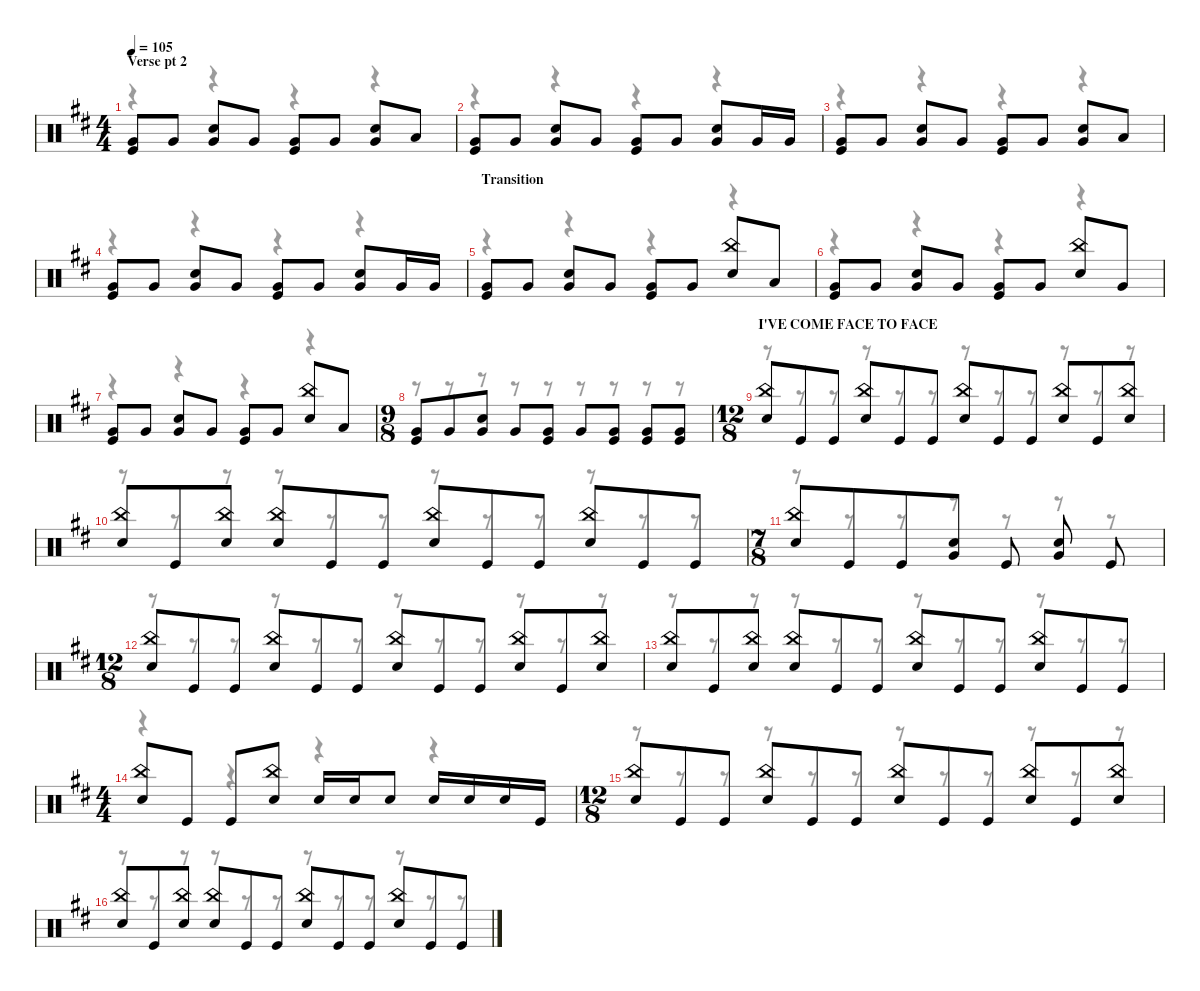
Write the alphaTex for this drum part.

\defaultSystemsLayout 4
\hideDynamics
\bracketExtendMode nobrackets
\singleTrackTrackNamePolicy hidden
\multiTrackTrackNamePolicy hidden
\firstSystemTrackNameMode fullname
\firstSystemTrackNameOrientation horizontal
\otherSystemsTrackNameOrientation horizontal
\track ("Drums" "drm.") {instrument percussion}
\staff {score}
\articulation defaults
\voice
\ts (4 4)
\section ("" "Verse pt 2")
\tempo 105
\clef neutral
\ks bminor
("Very Low Tom (hit)"{acc forcenatural} "Kick (hit)"{acc forcenatural}).8{dy mp beam Up} "Very Low Tom (hit)"{acc forcenatural}.8{beam Up} ("Very Low Tom (hit)"{acc forcenatural} "Snare (hit) 2"{acc forcenatural}).8{beam Up} "Very Low Tom (hit)"{acc forcenatural}.8{beam Up} ("Very Low Tom (hit)"{acc forcenatural} "Kick (hit)"{acc forcenatural}).8{beam Up} "Very Low Tom (hit)"{acc forcenatural}.8{beam Up} ("Very Low Tom (hit)"{acc forcenatural} "Snare (hit) 2"{acc forcenatural}).8{beam Up} "Low Tom (hit)"{acc forcenatural}.8{beam Up} |
("Very Low Tom (hit)"{acc forcenatural} "Kick (hit)"{acc forcenatural}).8{beam Up} "Very Low Tom (hit)"{acc forcenatural}.8{beam Up} ("Very Low Tom (hit)"{acc forcenatural} "Snare (hit) 2"{acc forcenatural}).8{beam Up} "Very Low Tom (hit)"{acc forcenatural}.8{beam Up} ("Very Low Tom (hit)"{acc forcenatural} "Kick (hit)"{acc forcenatural}).8{beam Up} "Very Low Tom (hit)"{acc forcenatural}.8{beam Up} ("Very Low Tom (hit)"{acc forcenatural} "Snare (hit) 2"{acc forcenatural}).8{beam Up} "Very Low Tom (hit)"{acc forcenatural}.16{beam Up} "Very Low Tom (hit)"{acc forcenatural}.16{beam Up} |
("Very Low Tom (hit)"{acc forcenatural} "Kick (hit)"{acc forcenatural}).8{beam Up} "Very Low Tom (hit)"{acc forcenatural}.8{beam Up} ("Very Low Tom (hit)"{acc forcenatural} "Snare (hit) 2"{acc forcenatural}).8{beam Up} "Very Low Tom (hit)"{acc forcenatural}.8{beam Up} ("Very Low Tom (hit)"{acc forcenatural} "Kick (hit)"{acc forcenatural}).8{beam Up} "Very Low Tom (hit)"{acc forcenatural}.8{beam Up} ("Very Low Tom (hit)"{acc forcenatural} "Snare (hit) 2"{acc forcenatural}).8{beam Up} "Low Tom (hit)"{acc forcenatural}.8{beam Up} |
("Very Low Tom (hit)"{acc forcenatural} "Kick (hit)"{acc forcenatural}).8{beam Up} "Very Low Tom (hit)"{acc forcenatural}.8{beam Up} ("Very Low Tom (hit)"{acc forcenatural} "Snare (hit) 2"{acc forcenatural}).8{beam Up} "Very Low Tom (hit)"{acc forcenatural}.8{beam Up} ("Very Low Tom (hit)"{acc forcenatural} "Kick (hit)"{acc forcenatural}).8{beam Up} "Very Low Tom (hit)"{acc forcenatural}.8{beam Up} ("Very Low Tom (hit)"{acc forcenatural} "Snare (hit) 2"{acc forcenatural}).8{beam Up} "Very Low Tom (hit)"{acc forcenatural}.16{beam Up} "Very Low Tom (hit)"{acc forcenatural}.16{beam Up} |
\section ("" "Transition")
("Very Low Tom (hit)"{acc forcenatural} "Kick (hit)"{acc forcenatural}).8{beam Up} "Very Low Tom (hit)"{acc forcenatural}.8{beam Up} ("Very Low Tom (hit)"{acc forcenatural} "Snare (hit) 2"{acc forcenatural}).8{beam Up} "Very Low Tom (hit)"{acc forcenatural}.8{beam Up} ("Very Low Tom (hit)"{acc forcenatural} "Kick (hit)"{acc forcenatural}).8{beam Up} "Very Low Tom (hit)"{acc forcenatural}.8{beam Up} ("Snare (hit) 2"{acc forcenatural} "China (hit)"{acc forcenatural}).8{beam Up} "Low Tom (hit)"{acc forcenatural}.8{beam Up} |
("Very Low Tom (hit)"{acc forcenatural} "Kick (hit)"{acc forcenatural}).8{beam Up} "Very Low Tom (hit)"{acc forcenatural}.8{beam Up} ("Very Low Tom (hit)"{acc forcenatural} "Snare (hit) 2"{acc forcenatural}).8{beam Up} "Very Low Tom (hit)"{acc forcenatural}.8{beam Up} ("Very Low Tom (hit)"{acc forcenatural} "Kick (hit)"{acc forcenatural}).8{beam Up} "Very Low Tom (hit)"{acc forcenatural}.8{beam Up} ("Snare (hit) 2"{acc forcenatural} "China (hit)"{acc forcenatural}).8{beam Up} "Very Low Tom (hit)"{acc forcenatural}.8{beam Up} |
("Very Low Tom (hit)"{acc forcenatural} "Kick (hit)"{acc forcenatural}).8{beam Up} "Very Low Tom (hit)"{acc forcenatural}.8{beam Up} ("Very Low Tom (hit)"{acc forcenatural} "Snare (hit) 2"{acc forcenatural}).8{beam Up} "Very Low Tom (hit)"{acc forcenatural}.8{beam Up} ("Very Low Tom (hit)"{acc forcenatural} "Kick (hit)"{acc forcenatural}).8{beam Up} "Very Low Tom (hit)"{acc forcenatural}.8{beam Up} ("Snare (hit) 2"{acc forcenatural} "China (hit)"{acc forcenatural}).8{beam Up} "Low Tom (hit)"{acc forcenatural}.8{beam Up} |
\ts (9 8)
\beaming (8 3 2 2 2)
("Very Low Tom (hit)"{acc forcenatural} "Kick (hit)"{acc forcenatural}).8{beam Up} "Very Low Tom (hit)"{acc forcenatural}.8{beam Up} ("Very Low Tom (hit)"{acc forcenatural} "Snare (hit) 2"{acc forcenatural}).8{beam Up} "Very Low Tom (hit)"{acc forcenatural}.8{beam Up} ("Very Low Tom (hit)"{acc forcenatural} "Kick (hit)"{acc forcenatural}).8{beam Up} "Very Low Tom (hit)"{acc forcenatural}.8{beam Up} ("Kick (hit)"{acc forcenatural} "Very Low Tom (hit)"{acc forcenatural}).8{dy f beam Up} ("Kick (hit)"{acc forcenatural} "Very Low Tom (hit)"{acc forcenatural}).8{beam Up} ("Kick (hit)"{acc forcenatural} "Very Low Tom (hit)"{acc forcenatural}).8{beam Up} |
\ts (12 8)
\beaming (8 3 3 3 3)
\section ("" "I'VE COME FACE TO FACE")
("Snare (hit) 2"{acc forcenatural} "China (hit)"{acc forcenatural}).8{beam Up} "Kick (hit)"{acc forcenatural}.8{beam Up} "Kick (hit)"{acc forcenatural}.8{beam Up} ("Snare (hit) 2"{acc forcenatural} "China (hit)"{acc forcenatural}).8{beam Up} "Kick (hit)"{acc forcenatural}.8{beam Up} "Kick (hit)"{acc forcenatural}.8{beam Up} ("Snare (hit) 2"{acc forcenatural} "China (hit)"{acc forcenatural}).8{beam Up} "Kick (hit)"{acc forcenatural}.8{beam Up} "Kick (hit)"{acc forcenatural}.8{beam Up} ("Snare (hit) 2"{acc forcenatural} "China (hit)"{acc forcenatural}).8{beam Up} "Kick (hit)"{acc forcenatural}.8{beam Up} ("Snare (hit) 2"{acc forcenatural} "China (hit)"{acc forcenatural}).8{beam Up} |
("Snare (hit) 2"{acc forcenatural} "China (hit)"{acc forcenatural}).8{beam Up} "Kick (hit)"{acc forcenatural}.8{beam Up} ("Snare (hit) 2"{acc forcenatural} "China (hit)"{acc forcenatural}).8{beam Up} ("Snare (hit) 2"{acc forcenatural} "China (hit)"{acc forcenatural}).8{beam Up} "Kick (hit)"{acc forcenatural}.8{beam Up} "Kick (hit)"{acc forcenatural}.8{beam Up} ("Snare (hit) 2"{acc forcenatural} "China (hit)"{acc forcenatural}).8{beam Up} "Kick (hit)"{acc forcenatural}.8{beam Up} "Kick (hit)"{acc forcenatural}.8{beam Up} ("Snare (hit) 2"{acc forcenatural} "China (hit)"{acc forcenatural}).8{beam Up} "Kick (hit)"{acc forcenatural}.8{beam Up} "Kick (hit)"{acc forcenatural}.8{beam Up} |
\ts (7 8)
\beaming (8 4 1 1 1)
("Snare (hit) 2"{acc forcenatural} "China (hit)"{acc forcenatural}).8{beam Up} "Kick (hit)"{acc forcenatural}.8{beam Up} "Kick (hit)"{acc forcenatural}.8{beam Up} ("Snare (hit) 2"{acc forcenatural} "Very Low Tom (hit)"{acc forcenatural}).8{beam Up} "Kick (hit)"{acc forcenatural}.8{beam Up} ("Snare (hit) 2"{acc forcenatural} "Very Low Tom (hit)"{acc forcenatural}).8{beam Up} "Kick (hit)"{acc forcenatural}.8{beam Up} |
\ts (12 8)
\beaming (8 3 3 3 3)
("Snare (hit) 2"{acc forcenatural} "China (hit)"{acc forcenatural}).8{beam Up} "Kick (hit)"{acc forcenatural}.8{beam Up} "Kick (hit)"{acc forcenatural}.8{beam Up} ("Snare (hit) 2"{acc forcenatural} "China (hit)"{acc forcenatural}).8{beam Up} "Kick (hit)"{acc forcenatural}.8{beam Up} "Kick (hit)"{acc forcenatural}.8{beam Up} ("Snare (hit) 2"{acc forcenatural} "China (hit)"{acc forcenatural}).8{beam Up} "Kick (hit)"{acc forcenatural}.8{beam Up} "Kick (hit)"{acc forcenatural}.8{beam Up} ("Snare (hit) 2"{acc forcenatural} "China (hit)"{acc forcenatural}).8{beam Up} "Kick (hit)"{acc forcenatural}.8{beam Up} ("Snare (hit) 2"{acc forcenatural} "China (hit)"{acc forcenatural}).8{beam Up} |
("Snare (hit) 2"{acc forcenatural} "China (hit)"{acc forcenatural}).8{beam Up} "Kick (hit)"{acc forcenatural}.8{beam Up} ("Snare (hit) 2"{acc forcenatural} "China (hit)"{acc forcenatural}).8{beam Up} ("Snare (hit) 2"{acc forcenatural} "China (hit)"{acc forcenatural}).8{beam Up} "Kick (hit)"{acc forcenatural}.8{beam Up} "Kick (hit)"{acc forcenatural}.8{beam Up} ("Snare (hit) 2"{acc forcenatural} "China (hit)"{acc forcenatural}).8{beam Up} "Kick (hit)"{acc forcenatural}.8{beam Up} "Kick (hit)"{acc forcenatural}.8{beam Up} ("Snare (hit) 2"{acc forcenatural} "China (hit)"{acc forcenatural}).8{beam Up} "Kick (hit)"{acc forcenatural}.8{beam Up} "Kick (hit)"{acc forcenatural}.8{beam Up} |
\ts (4 4)
\beaming (8 2 2 2 2)
("Snare (hit) 2"{acc forcenatural} "China (hit)"{acc forcenatural}).8{beam Up} "Kick (hit)"{acc forcenatural}.8{beam Up} "Kick (hit)"{acc forcenatural}.8{beam Up} ("Snare (hit) 2"{acc forcenatural} "China (hit)"{acc forcenatural}).8{beam Up} "Snare (hit) 2"{acc forcenatural}.16{beam Up} "Snare (hit) 2"{acc forcenatural}.16{beam Up} "Snare (hit) 2"{acc forcenatural}.8{beam Up} "Snare (hit) 2"{acc forcenatural}.16{beam Up} "Snare (hit) 2"{acc forcenatural}.16{beam Up} "Snare (hit) 2"{acc forcenatural}.16{beam Up} "Kick (hit)"{acc forcenatural}.16{beam Up} |
\ts (12 8)
\beaming (8 3 3 3 3)
("Snare (hit) 2"{acc forcenatural} "China (hit)"{acc forcenatural}).8{beam Up} "Kick (hit)"{acc forcenatural}.8{beam Up} "Kick (hit)"{acc forcenatural}.8{beam Up} ("Snare (hit) 2"{acc forcenatural} "China (hit)"{acc forcenatural}).8{beam Up} "Kick (hit)"{acc forcenatural}.8{beam Up} "Kick (hit)"{acc forcenatural}.8{beam Up} ("Snare (hit) 2"{acc forcenatural} "China (hit)"{acc forcenatural}).8{beam Up} "Kick (hit)"{acc forcenatural}.8{beam Up} "Kick (hit)"{acc forcenatural}.8{beam Up} ("Snare (hit) 2"{acc forcenatural} "China (hit)"{acc forcenatural}).8{beam Up} "Kick (hit)"{acc forcenatural}.8{beam Up} ("Snare (hit) 2"{acc forcenatural} "China (hit)"{acc forcenatural}).8{beam Up} |
("Snare (hit) 2"{acc forcenatural} "China (hit)"{acc forcenatural}).8{beam Up} "Kick (hit)"{acc forcenatural}.8{beam Up} ("Snare (hit) 2"{acc forcenatural} "China (hit)"{acc forcenatural}).8{beam Up} ("Snare (hit) 2"{acc forcenatural} "China (hit)"{acc forcenatural}).8{beam Up} "Kick (hit)"{acc forcenatural}.8{beam Up} "Kick (hit)"{acc forcenatural}.8{beam Up} ("Snare (hit) 2"{acc forcenatural} "China (hit)"{acc forcenatural}).8{beam Up} "Kick (hit)"{acc forcenatural}.8{beam Up} "Kick (hit)"{acc forcenatural}.8{beam Up} ("Snare (hit) 2"{acc forcenatural} "China (hit)"{acc forcenatural}).8{beam Up} "Kick (hit)"{acc forcenatural}.8{beam Up} "Kick (hit)"{acc forcenatural}.8{beam Up}
\voice
\clef neutral
\ottava regular
\simile none
\ks bminor
r.4{dy mf beam Down} r.4{beam Down} r.4{beam Down} r.4{beam Down} |
r.4{beam Down} r.4{beam Down} r.4{beam Down} r.4{beam Down} |
r.4{beam Down} r.4{beam Down} r.4{beam Down} r.4{beam Down} |
r.4{beam Down} r.4{beam Down} r.4{beam Down} r.4{beam Down} |
r.4{beam Down} r.4{beam Down} r.4{beam Down} r.4{beam Down} |
r.4{beam Down} r.4{beam Down} r.4{beam Down} r.4{beam Down} |
r.4{beam Down} r.4{beam Down} r.4{beam Down} r.4{beam Down} |
r.8{beam Down} r.8{beam Down} r.8{beam Down} r.8{beam Down} r.8{beam Down} r.8{beam Down} r.8{beam Down} r.8{beam Down} r.8{beam Down} |
r.8{beam Down} r.8{beam Down} r.8{beam Down} r.8{beam Down} r.8{beam Down} r.8{beam Down} r.8{beam Down} r.8{beam Down} r.8{beam Down} r.8{beam Down} r.8{beam Down} r.8{beam Down} |
r.8{beam Down} r.8{beam Down} r.8{beam Down} r.8{beam Down} r.8{beam Down} r.8{beam Down} r.8{beam Down} r.8{beam Down} r.8{beam Down} r.8{beam Down} r.8{beam Down} r.8{beam Down} |
r.8{beam Down} r.8{beam Down} r.8{beam Down} r.8{beam Down} r.8{beam Down} r.8{beam Down} r.8{beam Down} |
r.8{beam Down} r.8{beam Down} r.8{beam Down} r.8{beam Down} r.8{beam Down} r.8{beam Down} r.8{beam Down} r.8{beam Down} r.8{beam Down} r.8{beam Down} r.8{beam Down} r.8{beam Down} |
r.8{beam Down} r.8{beam Down} r.8{beam Down} r.8{beam Down} r.8{beam Down} r.8{beam Down} r.8{beam Down} r.8{beam Down} r.8{beam Down} r.8{beam Down} r.8{beam Down} r.8{beam Down} |
r.4{beam Down} r.4{beam Down} r.4{beam Down} r.4{beam Down} |
r.8{beam Down} r.8{beam Down} r.8{beam Down} r.8{beam Down} r.8{beam Down} r.8{beam Down} r.8{beam Down} r.8{beam Down} r.8{beam Down} r.8{beam Down} r.8{beam Down} r.8{beam Down} |
r.8{beam Down} r.8{beam Down} r.8{beam Down} r.8{beam Down} r.8{beam Down} r.8{beam Down} r.8{beam Down} r.8{beam Down} r.8{beam Down} r.8{beam Down} r.8{beam Down} r.8{beam Down}
